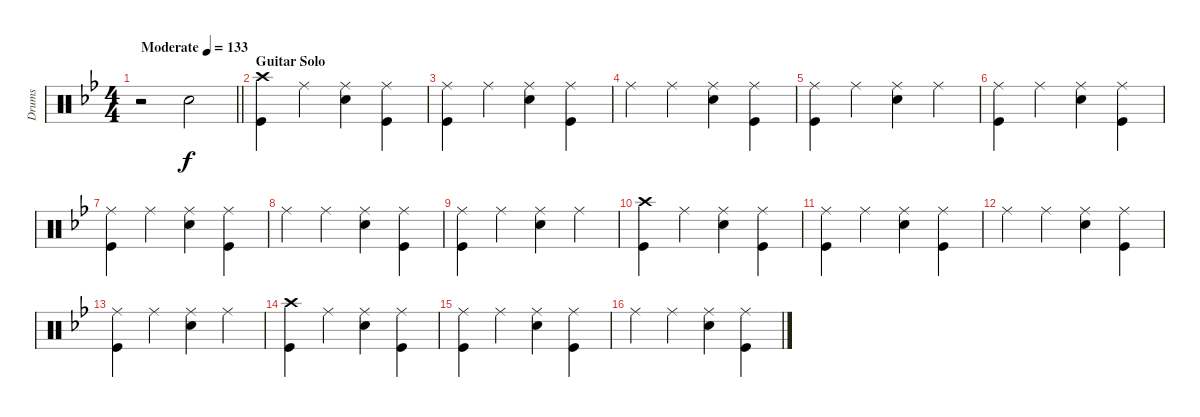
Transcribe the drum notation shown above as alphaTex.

\track ("Drums" "Drums") {instrument percussion}
\staff {score}
\articulation defaults
\ts (4 4)
\tempo (133 "Moderate")
\clef neutral
\barLineRight lightlight
\ks bb
r.2{dy f} "Snare (hit) 2".2 |
\section ("" "Guitar Solo")
("Crash high (hit)" "Kick (hit)").4 "Ride (middle)".4 ("Ride (middle)" "Snare (hit) 2").4 ("Ride (middle)" "Kick (hit)").4 |
("Ride (middle)" "Kick (hit)").4 "Ride (middle)".4 ("Ride (middle)" "Snare (hit) 2").4 ("Ride (middle)" "Kick (hit)").4 |
"Ride (middle)".4 "Ride (middle)".4 ("Ride (middle)" "Snare (hit) 2").4 ("Ride (middle)" "Kick (hit)").4 |
("Ride (middle)" "Kick (hit)").4 "Ride (middle)".4 ("Ride (middle)" "Snare (hit) 2").4 "Ride (middle)".4 |
("Ride (middle)" "Kick (hit)").4 "Ride (middle)".4 ("Ride (middle)" "Snare (hit) 2").4 ("Ride (middle)" "Kick (hit)").4 |
("Ride (middle)" "Kick (hit)").4 "Ride (middle)".4 ("Ride (middle)" "Snare (hit) 2").4 ("Ride (middle)" "Kick (hit)").4 |
"Ride (middle)".4 "Ride (middle)".4 ("Ride (middle)" "Snare (hit) 2").4 ("Ride (middle)" "Kick (hit)").4 |
("Ride (middle)" "Kick (hit)").4 "Ride (middle)".4 ("Ride (middle)" "Snare (hit) 2").4 "Ride (middle)".4 |
("Crash high (hit)" "Kick (hit)").4 "Ride (middle)".4 ("Ride (middle)" "Snare (hit) 2").4 ("Ride (middle)" "Kick (hit)").4 |
("Ride (middle)" "Kick (hit)").4 "Ride (middle)".4 ("Ride (middle)" "Snare (hit) 2").4 ("Ride (middle)" "Kick (hit)").4 |
"Ride (middle)".4 "Ride (middle)".4 ("Ride (middle)" "Snare (hit) 2").4 ("Ride (middle)" "Kick (hit)").4 |
("Ride (middle)" "Kick (hit)").4 "Ride (middle)".4 ("Ride (middle)" "Snare (hit) 2").4 "Ride (middle)".4 |
("Crash high (hit)" "Kick (hit)").4 "Ride (middle)".4 ("Ride (middle)" "Snare (hit) 2").4 ("Ride (middle)" "Kick (hit)").4 |
("Ride (middle)" "Kick (hit)").4 "Ride (middle)".4 ("Ride (middle)" "Snare (hit) 2").4 ("Ride (middle)" "Kick (hit)").4 |
"Ride (middle)".4 "Ride (middle)".4 ("Ride (middle)" "Snare (hit) 2").4 ("Ride (middle)" "Kick (hit)").4
